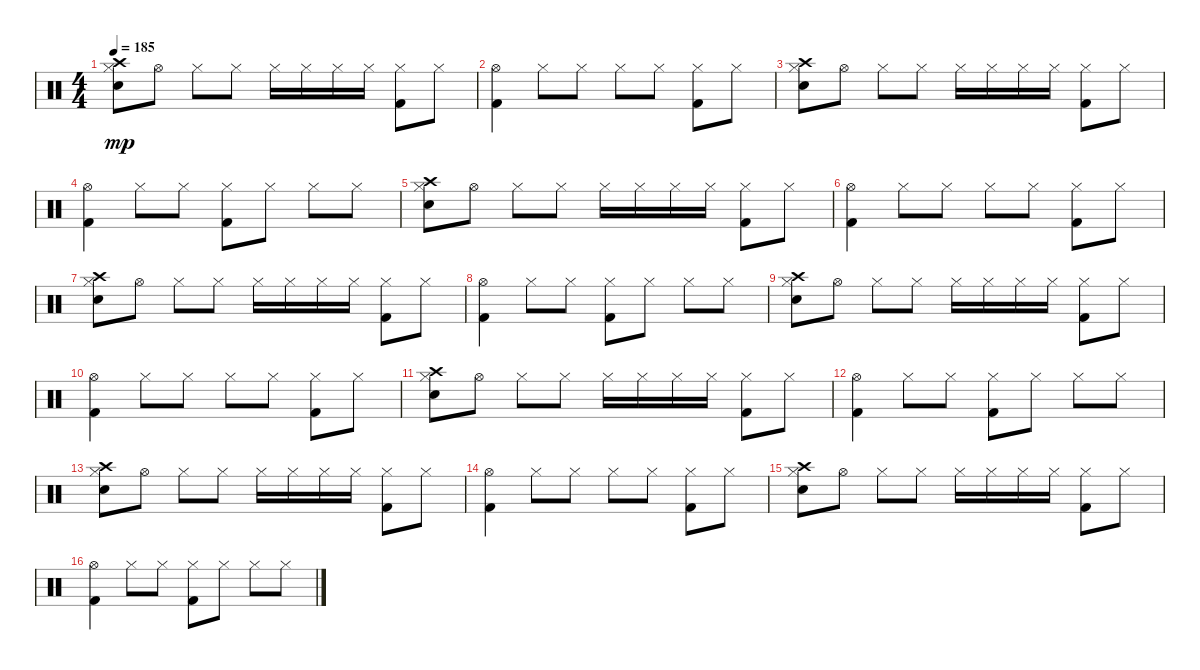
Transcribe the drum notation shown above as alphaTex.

\track "" {instrument percussion}
\staff {score}
\articulation defaults
\ts (4 4)
\tempo 185
\clef neutral
\ks c
("Hi-Hat (closed)" "Electric Snare (hit)" "Crash high (hit)").8{dy mp} "Hi-Hat (open)".8 "Hi-Hat (closed)".8 "Hi-Hat (closed)".8 "Hi-Hat (closed)".16 "Hi-Hat (closed)".16 "Hi-Hat (closed)".16 "Hi-Hat (closed)".16 ("Hi-Hat (closed)" "Kick (hit) 2").8 "Hi-Hat (closed)".8 |
("Hi-Hat (open)" "Kick (hit) 2").4 "Hi-Hat (closed)".8 "Hi-Hat (closed)".8 "Hi-Hat (closed)".8 "Hi-Hat (closed)".8 ("Hi-Hat (closed)" "Kick (hit) 2").8 "Hi-Hat (closed)".8 |
("Hi-Hat (closed)" "Electric Snare (hit)" "Crash high (hit)").8 "Hi-Hat (open)".8 "Hi-Hat (closed)".8 "Hi-Hat (closed)".8 "Hi-Hat (closed)".16 "Hi-Hat (closed)".16 "Hi-Hat (closed)".16 "Hi-Hat (closed)".16 ("Hi-Hat (closed)" "Kick (hit) 2").8 "Hi-Hat (closed)".8 |
("Hi-Hat (open)" "Kick (hit) 2").4 "Hi-Hat (closed)".8 "Hi-Hat (closed)".8 ("Hi-Hat (closed)" "Kick (hit) 2").8 "Hi-Hat (closed)".8 "Hi-Hat (closed)".8 "Hi-Hat (closed)".8 |
("Hi-Hat (closed)" "Electric Snare (hit)" "Crash high (hit)").8 "Hi-Hat (open)".8 "Hi-Hat (closed)".8 "Hi-Hat (closed)".8 "Hi-Hat (closed)".16 "Hi-Hat (closed)".16 "Hi-Hat (closed)".16 "Hi-Hat (closed)".16 ("Hi-Hat (closed)" "Kick (hit) 2").8 "Hi-Hat (closed)".8 |
("Hi-Hat (open)" "Kick (hit) 2").4 "Hi-Hat (closed)".8 "Hi-Hat (closed)".8 "Hi-Hat (closed)".8 "Hi-Hat (closed)".8 ("Hi-Hat (closed)" "Kick (hit) 2").8 "Hi-Hat (closed)".8 |
("Hi-Hat (closed)" "Electric Snare (hit)" "Crash high (hit)").8 "Hi-Hat (open)".8 "Hi-Hat (closed)".8 "Hi-Hat (closed)".8 "Hi-Hat (closed)".16 "Hi-Hat (closed)".16 "Hi-Hat (closed)".16 "Hi-Hat (closed)".16 ("Hi-Hat (closed)" "Kick (hit) 2").8 "Hi-Hat (closed)".8 |
("Hi-Hat (open)" "Kick (hit) 2").4 "Hi-Hat (closed)".8 "Hi-Hat (closed)".8 ("Hi-Hat (closed)" "Kick (hit) 2").8 "Hi-Hat (closed)".8 "Hi-Hat (closed)".8 "Hi-Hat (closed)".8 |
("Hi-Hat (closed)" "Electric Snare (hit)" "Crash high (hit)").8 "Hi-Hat (open)".8 "Hi-Hat (closed)".8 "Hi-Hat (closed)".8 "Hi-Hat (closed)".16 "Hi-Hat (closed)".16 "Hi-Hat (closed)".16 "Hi-Hat (closed)".16 ("Hi-Hat (closed)" "Kick (hit) 2").8 "Hi-Hat (closed)".8 |
("Hi-Hat (open)" "Kick (hit) 2").4 "Hi-Hat (closed)".8 "Hi-Hat (closed)".8 "Hi-Hat (closed)".8 "Hi-Hat (closed)".8 ("Hi-Hat (closed)" "Kick (hit) 2").8 "Hi-Hat (closed)".8 |
("Hi-Hat (closed)" "Electric Snare (hit)" "Crash high (hit)").8 "Hi-Hat (open)".8 "Hi-Hat (closed)".8 "Hi-Hat (closed)".8 "Hi-Hat (closed)".16 "Hi-Hat (closed)".16 "Hi-Hat (closed)".16 "Hi-Hat (closed)".16 ("Hi-Hat (closed)" "Kick (hit) 2").8 "Hi-Hat (closed)".8 |
("Hi-Hat (open)" "Kick (hit) 2").4 "Hi-Hat (closed)".8 "Hi-Hat (closed)".8 ("Hi-Hat (closed)" "Kick (hit) 2").8 "Hi-Hat (closed)".8 "Hi-Hat (closed)".8 "Hi-Hat (closed)".8 |
("Hi-Hat (closed)" "Electric Snare (hit)" "Crash high (hit)").8 "Hi-Hat (open)".8 "Hi-Hat (closed)".8 "Hi-Hat (closed)".8 "Hi-Hat (closed)".16 "Hi-Hat (closed)".16 "Hi-Hat (closed)".16 "Hi-Hat (closed)".16 ("Hi-Hat (closed)" "Kick (hit) 2").8 "Hi-Hat (closed)".8 |
("Hi-Hat (open)" "Kick (hit) 2").4 "Hi-Hat (closed)".8 "Hi-Hat (closed)".8 "Hi-Hat (closed)".8 "Hi-Hat (closed)".8 ("Hi-Hat (closed)" "Kick (hit) 2").8 "Hi-Hat (closed)".8 |
("Hi-Hat (closed)" "Electric Snare (hit)" "Crash high (hit)").8 "Hi-Hat (open)".8 "Hi-Hat (closed)".8 "Hi-Hat (closed)".8 "Hi-Hat (closed)".16 "Hi-Hat (closed)".16 "Hi-Hat (closed)".16 "Hi-Hat (closed)".16 ("Hi-Hat (closed)" "Kick (hit) 2").8 "Hi-Hat (closed)".8 |
("Hi-Hat (open)" "Kick (hit) 2").4 "Hi-Hat (closed)".8 "Hi-Hat (closed)".8 ("Hi-Hat (closed)" "Kick (hit) 2").8 "Hi-Hat (closed)".8 "Hi-Hat (closed)".8 "Hi-Hat (closed)".8
